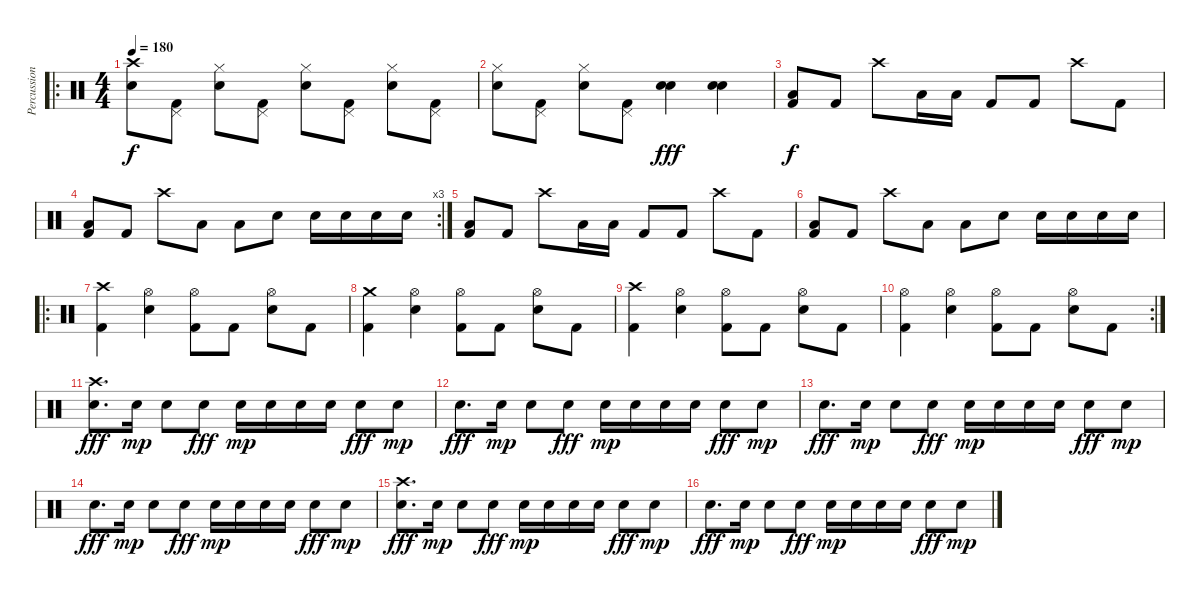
\track ("Percussion" "Percussion") {instrument percussion}
\staff {score}
\articulation defaults
\ro
\ts (4 4)
\tempo 180
\clef neutral
\ks c
("Crash high (hit)" "Snare (hit) 2").8{dy f} ("Pedal Hi-Hat (hit)" "Kick (hit) 2").8 ("Hi-Hat (closed)" "Snare (hit) 2").8 ("Pedal Hi-Hat (hit)" "Kick (hit) 2").8 ("Hi-Hat (closed)" "Snare (hit) 2").8 ("Pedal Hi-Hat (hit)" "Kick (hit) 2").8 ("Hi-Hat (closed)" "Snare (hit) 2").8 ("Pedal Hi-Hat (hit)" "Kick (hit) 2").8 |
("Hi-Hat (closed)" "Snare (hit) 2").8 ("Pedal Hi-Hat (hit)" "Kick (hit) 2").8 ("Hi-Hat (closed)" "Snare (hit) 2").8 ("Pedal Hi-Hat (hit)" "Kick (hit) 2").8 ("Snare (hit) 2" "Electric Snare (hit)").4{dy fff} ("Snare (hit) 2" "Electric Snare (hit)").4 |
("Low Tom (hit)" "Kick (hit) 2").8{dy f} "Kick (hit) 2".8 "Crash high (hit)".8 "Low Tom (hit)".16 "Low Floor Tom (hit)".16 "Kick (hit) 2".8 "Kick (hit) 2".8 "Crash high (hit)".8 "Kick (hit) 2".8 |
\rc 3
("Low Tom (hit)" "Kick (hit) 2").8 "Kick (hit) 2".8 "Crash high (hit)".8 "Low Tom (hit)".8 "Low Floor Tom (hit)".8 "Snare (hit) 2".8 "Snare (hit) 2".16 "Snare (hit) 2".16 "Snare (hit) 2".16 "Snare (hit) 2".16 |
("Low Tom (hit)" "Kick (hit) 2").8 "Kick (hit) 2".8 "Crash high (hit)".8 "Low Tom (hit)".16 "Low Floor Tom (hit)".16 "Kick (hit) 2".8 "Kick (hit) 2".8 "Crash high (hit)".8 "Kick (hit) 2".8 |
("Low Tom (hit)" "Kick (hit) 2").8 "Kick (hit) 2".8 "Crash high (hit)".8 "Low Tom (hit)".8 "Low Floor Tom (hit)".8 "Snare (hit) 2".8 "Snare (hit) 2".16 "Snare (hit) 2".16 "Snare (hit) 2".16 "Snare (hit) 2".16 |
\ro
("Crash high (hit)" "Kick (hit) 2").4{volume 13} ("Hi-Hat (open)" "Electric Snare (hit)").4 ("Hi-Hat (open)" "Kick (hit) 2").8 "Kick (hit) 2".8 ("Hi-Hat (open)" "Electric Snare (hit)").8 "Kick (hit) 2".8 |
("Crash medium (hit)" "Kick (hit) 2").4 ("Hi-Hat (open)" "Electric Snare (hit)").4 ("Hi-Hat (open)" "Kick (hit) 2").8 "Kick (hit) 2".8 ("Hi-Hat (open)" "Electric Snare (hit)").8 "Kick (hit) 2".8 |
("Crash high (hit)" "Kick (hit) 2").4 ("Hi-Hat (open)" "Electric Snare (hit)").4 ("Hi-Hat (open)" "Kick (hit) 2").8 "Kick (hit) 2".8 ("Hi-Hat (open)" "Electric Snare (hit)").8 "Kick (hit) 2".8 |
\rc 2
("Hi-Hat (open)" "Kick (hit) 2").4 ("Hi-Hat (open)" "Electric Snare (hit)").4 ("Hi-Hat (open)" "Kick (hit) 2").8 "Kick (hit) 2".8 ("Hi-Hat (open)" "Electric Snare (hit)").8 "Kick (hit) 2".8 |
("Crash high (hit)" "Electric Snare (hit)").8{d dy fff} "Electric Snare (hit)".16{dy mp} "Electric Snare (hit)".8 "Electric Snare (hit)".8{dy fff} "Electric Snare (hit)".16{dy mp} "Electric Snare (hit)".16 "Electric Snare (hit)".16 "Electric Snare (hit)".16 "Electric Snare (hit)".8{dy fff} "Electric Snare (hit)".8{dy mp} |
"Electric Snare (hit)".8{d dy fff} "Electric Snare (hit)".16{dy mp} "Electric Snare (hit)".8 "Electric Snare (hit)".8{dy fff} "Electric Snare (hit)".16{dy mp} "Electric Snare (hit)".16 "Electric Snare (hit)".16 "Electric Snare (hit)".16 "Electric Snare (hit)".8{dy fff} "Electric Snare (hit)".8{dy mp} |
"Electric Snare (hit)".8{d dy fff} "Electric Snare (hit)".16{dy mp} "Electric Snare (hit)".8 "Electric Snare (hit)".8{dy fff} "Electric Snare (hit)".16{dy mp} "Electric Snare (hit)".16 "Electric Snare (hit)".16 "Electric Snare (hit)".16 "Electric Snare (hit)".8{dy fff} "Electric Snare (hit)".8{dy mp} |
"Electric Snare (hit)".8{d dy fff} "Electric Snare (hit)".16{dy mp} "Electric Snare (hit)".8 "Electric Snare (hit)".8{dy fff} "Electric Snare (hit)".16{dy mp} "Electric Snare (hit)".16 "Electric Snare (hit)".16 "Electric Snare (hit)".16 "Electric Snare (hit)".8{dy fff} "Electric Snare (hit)".8{dy mp} |
("Crash high (hit)" "Electric Snare (hit)").8{d dy fff} "Electric Snare (hit)".16{dy mp} "Electric Snare (hit)".8 "Electric Snare (hit)".8{dy fff} "Electric Snare (hit)".16{dy mp} "Electric Snare (hit)".16 "Electric Snare (hit)".16 "Electric Snare (hit)".16 "Electric Snare (hit)".8{dy fff} "Electric Snare (hit)".8{dy mp} |
"Electric Snare (hit)".8{d dy fff} "Electric Snare (hit)".16{dy mp} "Electric Snare (hit)".8 "Electric Snare (hit)".8{dy fff} "Electric Snare (hit)".16{dy mp} "Electric Snare (hit)".16 "Electric Snare (hit)".16 "Electric Snare (hit)".16 "Electric Snare (hit)".8{dy fff} "Electric Snare (hit)".8{dy mp}
